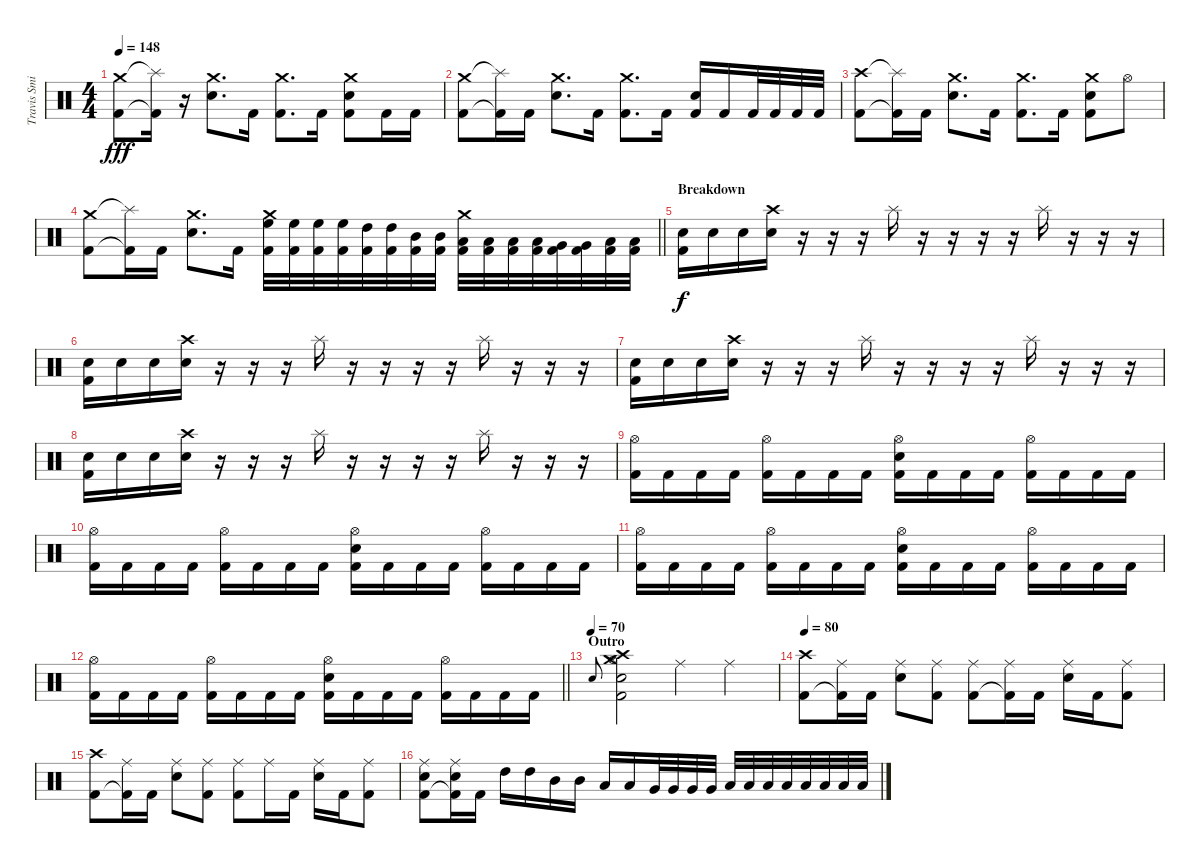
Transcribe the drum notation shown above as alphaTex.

\track ("Travis Smith" "Travis Smi") {instrument percussion}
\staff {score}
\articulation defaults
\ts (4 4)
\tempo 148
\clef neutral
\ks c
("Crash medium (hit)" "Kick (hit) 2").8{dy fff} ("Splash (hit)"{t} "Kick (hit) 2"{t}).16 r.16 ("Crash medium (hit)" "Snare (hit) 2").8{d} "Kick (hit) 2".16 ("Crash medium (hit)" "Kick (hit) 2").8{d} "Kick (hit) 2".16 ("Crash medium (hit)" "Snare (hit) 2" "Kick (hit) 2").8 "Kick (hit) 2".16 "Kick (hit) 2".16 |
("Crash medium (hit)" "Kick (hit) 2").8 ("Splash (hit)"{t} "Kick (hit) 2"{t}).16 "Kick (hit) 2".16 ("Crash medium (hit)" "Snare (hit) 2").8{d} "Kick (hit) 2".16 ("Crash medium (hit)" "Kick (hit) 2").8{d} "Kick (hit) 2".16 ("Snare (hit) 2" "Kick (hit) 2").16 "Kick (hit) 2".16 "Kick (hit) 2".32 "Kick (hit) 2".32 "Kick (hit) 2".32 "Kick (hit) 2".32 |
("Crash high (hit)" "Kick (hit) 2").8 ("Splash (hit)"{t} "Kick (hit) 2"{t}).16 "Kick (hit) 2".16 ("Crash medium (hit)" "Snare (hit) 2").8{d} "Kick (hit) 2".16 ("Crash medium (hit)" "Kick (hit) 2").8{d} "Kick (hit) 2".16 ("Crash medium (hit)" "Snare (hit) 2" "Kick (hit) 2").8 "Hi-Hat (open)".8 |
\barLineRight lightlight
("Crash medium (hit)" "Kick (hit) 2").8 ("Splash (hit)"{t} "Kick (hit) 2"{t}).16 "Kick (hit) 2".16 ("Crash medium (hit)" "Snare (hit) 2").8{d} "Kick (hit) 2".16 ("Crash medium (hit)" "High Floor Tom (hit)" "Kick (hit) 2").32 ("High Floor Tom (hit)" "Kick (hit) 2").32 ("High Floor Tom (hit)" "Kick (hit) 2").32 ("High Floor Tom (hit)" "Kick (hit) 2").32 ("High Tom (hit)" "Kick (hit) 2").32 ("High Tom (hit)" "Kick (hit) 2").32 ("Mid Tom (hit)" "Kick (hit) 2").32 ("Mid Tom (hit)" "Kick (hit) 2").32 ("Crash medium (hit)" "Low Tom (hit)" "Kick (hit) 2").32 ("Low Tom (hit)" "Kick (hit) 2").32 ("Low Tom (hit)" "Kick (hit) 2").32 ("Low Tom (hit)" "Kick (hit) 2").32 ("Very Low Tom (hit)" "Kick (hit) 2").32 ("Very Low Tom (hit)" "Kick (hit) 2").32 ("Low Floor Tom (hit)" "Kick (hit) 2").32 ("Low Floor Tom (hit)" "Kick (hit) 2").32 |
\section ("" "Breakdown")
("Snare (hit) 2" "Kick (hit) 2").16{dy f} "Snare (hit) 2".16 "Snare (hit) 2".16 ("Crash high (hit)" "Snare (hit) 2").16 r.16 r.16 r.16 "Splash (hit)".16 r.16 r.16 r.16 r.16 "Splash (hit)".16 r.16 r.16 r.16 |
("Snare (hit) 2" "Kick (hit) 2").16 "Snare (hit) 2".16 "Snare (hit) 2".16 ("Crash high (hit)" "Snare (hit) 2").16 r.16 r.16 r.16 "Splash (hit)".16 r.16 r.16 r.16 r.16 "Splash (hit)".16 r.16 r.16 r.16 |
("Snare (hit) 2" "Kick (hit) 2").16 "Snare (hit) 2".16 "Snare (hit) 2".16 ("Crash high (hit)" "Snare (hit) 2").16 r.16 r.16 r.16 "Splash (hit)".16 r.16 r.16 r.16 r.16 "Splash (hit)".16 r.16 r.16 r.16 |
("Snare (hit) 2" "Kick (hit) 2").16 "Snare (hit) 2".16 "Snare (hit) 2".16 ("Crash high (hit)" "Snare (hit) 2").16 r.16 r.16 r.16 "Splash (hit)".16 r.16 r.16 r.16 r.16 "Splash (hit)".16 r.16 r.16 r.16 |
("Hi-Hat (open)" "Kick (hit) 2").16 "Kick (hit) 2".16 "Kick (hit) 2".16 "Kick (hit) 2".16 ("Hi-Hat (open)" "Kick (hit) 2").16 "Kick (hit) 2".16 "Kick (hit) 2".16 "Kick (hit) 2".16 ("Hi-Hat (open)" "Snare (hit) 2" "Kick (hit) 2").16 "Kick (hit) 2".16 "Kick (hit) 2".16 "Kick (hit) 2".16 ("Hi-Hat (open)" "Kick (hit) 2").16 "Kick (hit) 2".16 "Kick (hit) 2".16 "Kick (hit) 2".16 |
("Hi-Hat (open)" "Kick (hit) 2").16 "Kick (hit) 2".16 "Kick (hit) 2".16 "Kick (hit) 2".16 ("Hi-Hat (open)" "Kick (hit) 2").16 "Kick (hit) 2".16 "Kick (hit) 2".16 "Kick (hit) 2".16 ("Hi-Hat (open)" "Snare (hit) 2" "Kick (hit) 2").16 "Kick (hit) 2".16 "Kick (hit) 2".16 "Kick (hit) 2".16 ("Hi-Hat (open)" "Kick (hit) 2").16 "Kick (hit) 2".16 "Kick (hit) 2".16 "Kick (hit) 2".16 |
("Hi-Hat (open)" "Kick (hit) 2").16 "Kick (hit) 2".16 "Kick (hit) 2".16 "Kick (hit) 2".16 ("Hi-Hat (open)" "Kick (hit) 2").16 "Kick (hit) 2".16 "Kick (hit) 2".16 "Kick (hit) 2".16 ("Hi-Hat (open)" "Snare (hit) 2" "Kick (hit) 2").16 "Kick (hit) 2".16 "Kick (hit) 2".16 "Kick (hit) 2".16 ("Hi-Hat (open)" "Kick (hit) 2").16 "Kick (hit) 2".16 "Kick (hit) 2".16 "Kick (hit) 2".16 |
\barLineRight lightlight
("Hi-Hat (open)" "Kick (hit) 2").16 "Kick (hit) 2".16 "Kick (hit) 2".16 "Kick (hit) 2".16 ("Hi-Hat (open)" "Kick (hit) 2").16 "Kick (hit) 2".16 "Kick (hit) 2".16 "Kick (hit) 2".16 ("Hi-Hat (open)" "Snare (hit) 2" "Kick (hit) 2").16 "Kick (hit) 2".16 "Kick (hit) 2".16 "Kick (hit) 2".16 ("Hi-Hat (open)" "Kick (hit) 2").16 "Kick (hit) 2".16 "Kick (hit) 2".16 "Kick (hit) 2".16 |
\section ("" "Outro")
\tempo (70)
"Snare (hit) 2".8{gr onbeat} ("Crash high (hit)" "Crash medium (hit)" "Hi-Hat (open)" "Snare (hit) 2" "Kick (hit) 2").2 "Ride (middle)".4 "Ride (middle)".4 |
\tempo 80
("Crash high (hit)" "Kick (hit) 2").8 ("Ride (middle)" "Kick (hit) 2"{t}).16 "Kick (hit) 2".16 ("Ride (middle)" "Snare (hit) 2").8 ("Ride (middle)" "Kick (hit) 2").8 ("Ride (middle)" "Kick (hit) 2").8 ("Ride (middle)" "Kick (hit) 2"{t}).16 "Kick (hit) 2".16 ("Ride (middle)" "Snare (hit) 2").16 "Kick (hit) 2".16 ("Ride (middle)" "Kick (hit) 2").8 |
("Crash high (hit)" "Kick (hit) 2").8 ("Ride (middle)" "Kick (hit) 2"{t}).16 "Kick (hit) 2".16 ("Ride (middle)" "Snare (hit) 2").8 ("Ride (middle)" "Kick (hit) 2").8 ("Ride (middle)" "Kick (hit) 2").8 "Ride (middle)".16 "Kick (hit) 2".16 ("Ride (middle)" "Snare (hit) 2").16 "Kick (hit) 2".16 ("Ride (middle)" "Kick (hit) 2").8 |
("Ride (middle)" "Snare (hit) 2" "Kick (hit) 2").8 ("Ride (middle)" "Snare (hit) 2" "Kick (hit) 2"{t}).16 "Kick (hit) 2".16 "High Tom (hit)".16 "High Tom (hit)".16 "Mid Tom (hit)".16 "Mid Tom (hit)".16 "Low Tom (hit)".16 "Low Tom (hit)".16 "Very Low Tom (hit)".32 "Very Low Tom (hit)".32 "Very Low Tom (hit)".32 "Very Low Tom (hit)".32 "Low Floor Tom (hit)".32 "Low Floor Tom (hit)".32 "Low Floor Tom (hit)".32 "Low Floor Tom (hit)".32 "Low Floor Tom (hit)".32 "Low Floor Tom (hit)".32 "Low Floor Tom (hit)".32 "Low Floor Tom (hit)".32
